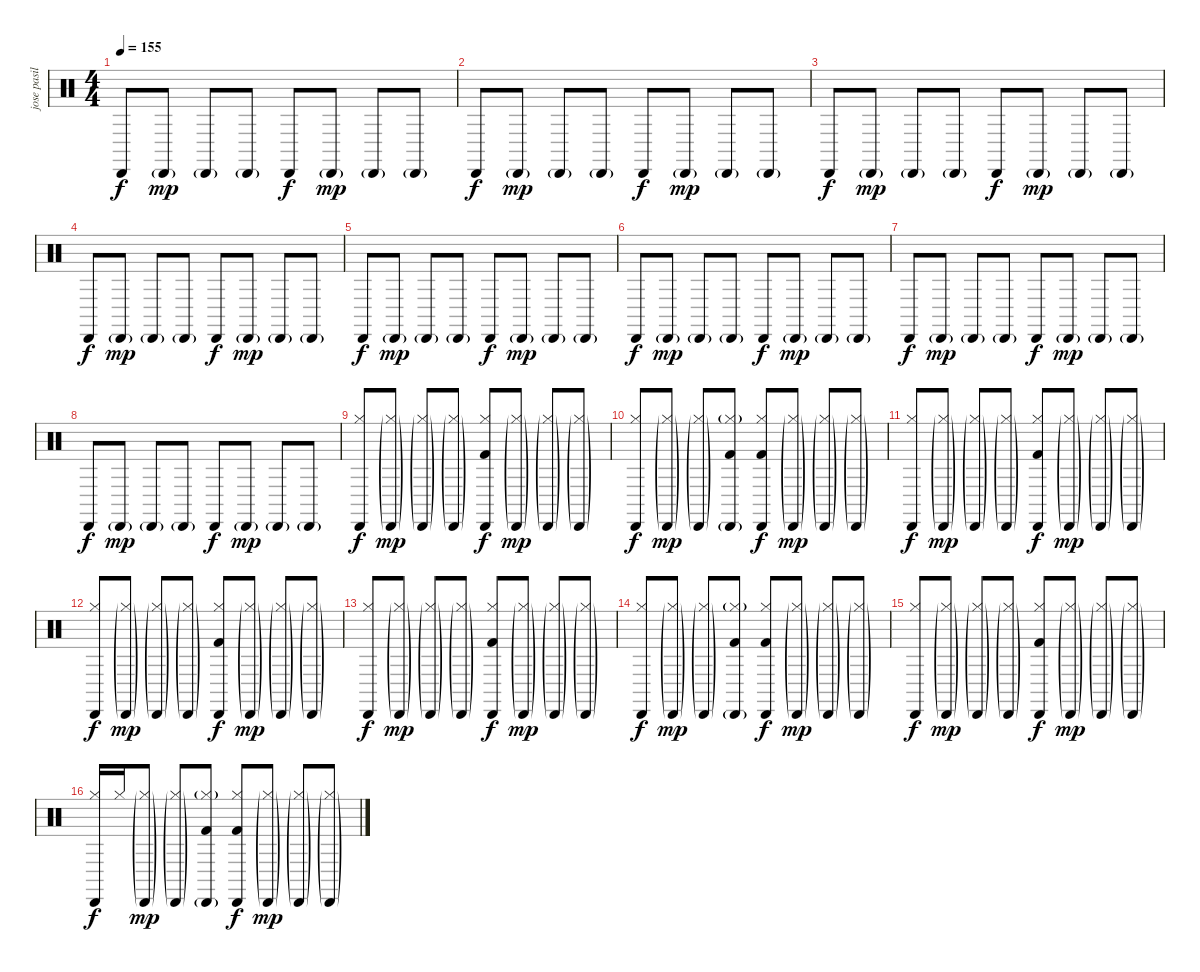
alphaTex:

\track ("jose pasillas" "jose pasil") {instrument percussion}
\staff {score}
\articulation defaults
\ts (4 4)
\tempo 155
\clef neutral
\ks c "Cabasa (hit)".8{dy f} "Cabasa (hit)"{g}.8{dy mp} "Cabasa (hit)"{g}.8 "Cabasa (hit)"{g}.8 "Cabasa (hit)".8{dy f} "Cabasa (hit)"{g}.8{dy mp} "Cabasa (hit)"{g}.8 "Cabasa (hit)"{g}.8
|
"Cabasa (hit)".8{dy f} "Cabasa (hit)"{g}.8{dy mp} "Cabasa (hit)"{g}.8 "Cabasa (hit)"{g}.8 "Cabasa (hit)".8{dy f} "Cabasa (hit)"{g}.8{dy mp} "Cabasa (hit)"{g}.8 "Cabasa (hit)"{g}.8 |
"Cabasa (hit)".8{dy f} "Cabasa (hit)"{g}.8{dy mp} "Cabasa (hit)"{g}.8 "Cabasa (hit)"{g}.8 "Cabasa (hit)".8{dy f} "Cabasa (hit)"{g}.8{dy mp} "Cabasa (hit)"{g}.8 "Cabasa (hit)"{g}.8 |
"Cabasa (hit)".8{dy f} "Cabasa (hit)"{g}.8{dy mp} "Cabasa (hit)"{g}.8 "Cabasa (hit)"{g}.8 "Cabasa (hit)".8{dy f} "Cabasa (hit)"{g}.8{dy mp} "Cabasa (hit)"{g}.8 "Cabasa (hit)"{g}.8 |
"Cabasa (hit)".8{dy f} "Cabasa (hit)"{g}.8{dy mp} "Cabasa (hit)"{g}.8 "Cabasa (hit)"{g}.8 "Cabasa (hit)".8{dy f} "Cabasa (hit)"{g}.8{dy mp} "Cabasa (hit)"{g}.8 "Cabasa (hit)"{g}.8 |
"Cabasa (hit)".8{dy f} "Cabasa (hit)"{g}.8{dy mp} "Cabasa (hit)"{g}.8 "Cabasa (hit)"{g}.8 "Cabasa (hit)".8{dy f} "Cabasa (hit)"{g}.8{dy mp} "Cabasa (hit)"{g}.8 "Cabasa (hit)"{g}.8 |
"Cabasa (hit)".8{dy f} "Cabasa (hit)"{g}.8{dy mp} "Cabasa (hit)"{g}.8 "Cabasa (hit)"{g}.8 "Cabasa (hit)".8{dy f} "Cabasa (hit)"{g}.8{dy mp} "Cabasa (hit)"{g}.8 "Cabasa (hit)"{g}.8 |
"Cabasa (hit)".8{dy f} "Cabasa (hit)"{g}.8{dy mp} "Cabasa (hit)"{g}.8 "Cabasa (hit)"{g}.8 "Cabasa (hit)".8{dy f} "Cabasa (hit)"{g}.8{dy mp} "Cabasa (hit)"{g}.8 "Cabasa (hit)"{g}.8 |
("Cabasa (hit)" "Hi-Hat (closed)").8{dy f} ("Cabasa (hit)"{g} "Hi-Hat (closed)"{g}).8{dy mp} ("Cabasa (hit)"{g} "Hi-Hat (closed)"{g}).8 ("Cabasa (hit)"{g} "Hi-Hat (closed)"{g}).8 ("Cabasa (hit)" "Hi-Hat (closed)" "Kick (hit) 2").8{dy f} ("Cabasa (hit)"{g} "Hi-Hat (closed)"{g}).8{dy mp} ("Cabasa (hit)"{g} "Hi-Hat (closed)"{g}).8 ("Cabasa (hit)"{g} "Hi-Hat (closed)"{g}).8 |
("Cabasa (hit)" "Hi-Hat (closed)").8{dy f} ("Cabasa (hit)"{g} "Hi-Hat (closed)"{g}).8{dy mp} ("Cabasa (hit)"{g} "Hi-Hat (closed)"{g}).8 ("Cabasa (hit)"{g} "Hi-Hat (closed)"{g} "Kick (hit) 2").8 ("Cabasa (hit)" "Hi-Hat (closed)" "Kick (hit) 2").8{dy f} ("Cabasa (hit)"{g} "Hi-Hat (closed)"{g}).8{dy mp} ("Cabasa (hit)"{g} "Hi-Hat (closed)"{g}).8 ("Cabasa (hit)"{g} "Hi-Hat (closed)"{g}).8 |
("Cabasa (hit)" "Hi-Hat (closed)").8{dy f} ("Cabasa (hit)"{g} "Hi-Hat (closed)"{g}).8{dy mp} ("Cabasa (hit)"{g} "Hi-Hat (closed)"{g}).8 ("Cabasa (hit)"{g} "Hi-Hat (closed)"{g}).8 ("Cabasa (hit)" "Hi-Hat (closed)" "Kick (hit) 2").8{dy f} ("Cabasa (hit)"{g} "Hi-Hat (closed)"{g}).8{dy mp} ("Cabasa (hit)"{g} "Hi-Hat (closed)"{g}).8 ("Cabasa (hit)"{g} "Hi-Hat (closed)"{g}).8 |
("Cabasa (hit)" "Hi-Hat (closed)").8{dy f} ("Cabasa (hit)"{g} "Hi-Hat (closed)"{g}).8{dy mp} ("Cabasa (hit)"{g} "Hi-Hat (closed)"{g}).8 ("Cabasa (hit)"{g} "Hi-Hat (closed)"{g}).8 ("Cabasa (hit)" "Hi-Hat (closed)" "Kick (hit) 2").8{dy f} ("Cabasa (hit)"{g} "Hi-Hat (closed)"{g}).8{dy mp} ("Cabasa (hit)"{g} "Hi-Hat (closed)"{g}).8 ("Cabasa (hit)"{g} "Hi-Hat (closed)"{g}).8 |
("Cabasa (hit)" "Hi-Hat (closed)").8{dy f} ("Cabasa (hit)"{g} "Hi-Hat (closed)"{g}).8{dy mp} ("Cabasa (hit)"{g} "Hi-Hat (closed)"{g}).8 ("Cabasa (hit)"{g} "Hi-Hat (closed)"{g}).8 ("Cabasa (hit)" "Hi-Hat (closed)" "Kick (hit) 2").8{dy f} ("Cabasa (hit)"{g} "Hi-Hat (closed)"{g}).8{dy mp} ("Cabasa (hit)"{g} "Hi-Hat (closed)"{g}).8 ("Cabasa (hit)"{g} "Hi-Hat (closed)"{g}).8 |
("Cabasa (hit)" "Hi-Hat (closed)").8{dy f} ("Cabasa (hit)"{g} "Hi-Hat (closed)"{g}).8{dy mp} ("Cabasa (hit)"{g} "Hi-Hat (closed)"{g}).8 ("Cabasa (hit)"{g} "Hi-Hat (closed)"{g} "Kick (hit) 2").8 ("Cabasa (hit)" "Hi-Hat (closed)" "Kick (hit) 2").8{dy f} ("Cabasa (hit)"{g} "Hi-Hat (closed)"{g}).8{dy mp} ("Cabasa (hit)"{g} "Hi-Hat (closed)"{g}).8 ("Cabasa (hit)"{g} "Hi-Hat (closed)"{g}).8 |
("Cabasa (hit)" "Hi-Hat (closed)").8{dy f} ("Cabasa (hit)"{g} "Hi-Hat (closed)"{g}).8{dy mp} ("Cabasa (hit)"{g} "Hi-Hat (closed)"{g}).8 ("Cabasa (hit)"{g} "Hi-Hat (closed)"{g}).8 ("Cabasa (hit)" "Hi-Hat (closed)" "Kick (hit) 2").8{dy f} ("Cabasa (hit)"{g} "Hi-Hat (closed)"{g}).8{dy mp} ("Cabasa (hit)"{g} "Hi-Hat (closed)"{g}).8 ("Cabasa (hit)"{g} "Hi-Hat (closed)"{g}).8 |
("Cabasa (hit)" "Hi-Hat (closed)").16{dy f} "Hi-Hat (closed)".16 ("Cabasa (hit)"{g} "Hi-Hat (closed)"{g}).8{dy mp} ("Cabasa (hit)"{g} "Hi-Hat (closed)"{g}).8 ("Cabasa (hit)"{g} "Hi-Hat (closed)"{g} "Kick (hit) 2").8 ("Cabasa (hit)" "Hi-Hat (closed)" "Kick (hit) 2").8{dy f} ("Cabasa (hit)"{g} "Hi-Hat (closed)"{g}).8{dy mp} ("Cabasa (hit)"{g} "Hi-Hat (closed)"{g}).8 ("Cabasa (hit)"{g} "Hi-Hat (closed)"{g}).8
